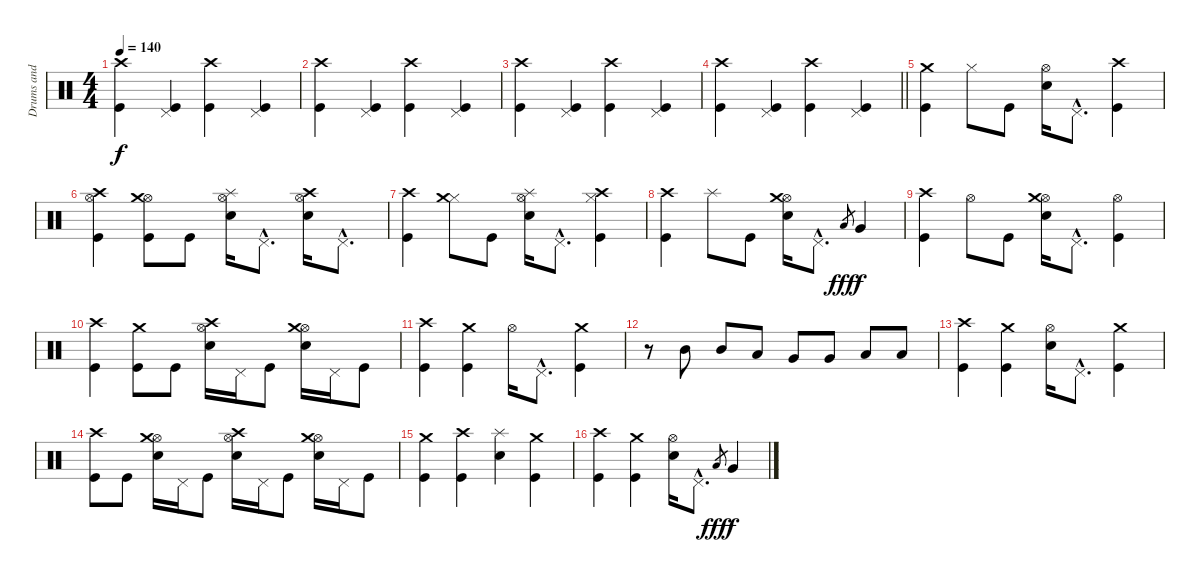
\track ("Drums and percussion" "Drums and ") {instrument percussion}
\staff {score}
\articulation defaults
\ts (4 4)
\tempo 140
\clef neutral
\ks c
("Crash high (hit)" "Kick (hit)").4{dy f} ("Pedal Hi-Hat (hit)" "Kick (hit)").4 ("Crash high (hit)" "Kick (hit)").4 ("Pedal Hi-Hat (hit)" "Kick (hit)").4 |
("Crash high (hit)" "Kick (hit)").4 ("Pedal Hi-Hat (hit)" "Kick (hit)").4 ("Crash high (hit)" "Kick (hit)").4 ("Pedal Hi-Hat (hit)" "Kick (hit)").4 |
("Crash high (hit)" "Kick (hit)").4 ("Pedal Hi-Hat (hit)" "Kick (hit)").4 ("Crash high (hit)" "Kick (hit)").4 ("Pedal Hi-Hat (hit)" "Kick (hit)").4 |
\barLineRight lightlight
("Crash high (hit)" "Kick (hit)").4 ("Pedal Hi-Hat (hit)" "Kick (hit)").4 ("Crash high (hit)" "Kick (hit)").4 ("Pedal Hi-Hat (hit)" "Kick (hit)").4 |
("Crash medium (hit)" "Kick (hit)").4 "Hi-Hat (closed)".8 "Kick (hit)".8 ("Hi-Hat (open)" "Electric Snare (hit)").16 "Pedal Hi-Hat (hit)"{hac}.8{d} ("Crash high (hit)" "Kick (hit)").4 |
("Hi-Hat (open)" "Crash high (hit)" "Kick (hit)").4 ("Hi-Hat (open)" "Crash medium (hit)" "Kick (hit)").8 "Kick (hit)".8 ("Hi-Hat (open)" "Splash (hit)" "Electric Snare (hit)").16 "Pedal Hi-Hat (hit)"{hac}.8{d} ("Hi-Hat (open)" "Crash high (hit)" "Electric Snare (hit)").16 "Pedal Hi-Hat (hit)"{hac}.8{d} |
("Crash high (hit)" "Kick (hit)").4 ("Hi-Hat (closed)" "Crash medium (hit)").8 "Kick (hit)".8 ("Hi-Hat (open)" "Splash (hit)" "Electric Snare (hit)").16 "Pedal Hi-Hat (hit)"{hac}.8{d} ("Hi-Hat (closed)" "Crash high (hit)" "Kick (hit)").4 |
("Crash high (hit)" "Kick (hit)").4 "Splash (hit)".8 "Kick (hit)".8 ("Hi-Hat (open)" "Crash medium (hit)" "Electric Snare (hit)").16 "Pedal Hi-Hat (hit)"{hac}.8{d} "Low Tom (hit)".8{gr dy fff} "Very Low Tom (hit)".4{dy f} |
("Crash high (hit)" "Kick (hit)").4 "Hi-Hat (open)".8 "Kick (hit)".8 ("Hi-Hat (open)" "Crash medium (hit)" "Electric Snare (hit)").16 "Pedal Hi-Hat (hit)"{hac}.8{d} ("Hi-Hat (open)" "Kick (hit)").4 |
("Crash high (hit)" "Kick (hit)").4 ("Crash medium (hit)" "Kick (hit)").8 "Kick (hit)".8 ("Hi-Hat (open)" "Crash high (hit)" "Electric Snare (hit)").16 "Pedal Hi-Hat (hit)".16 "Kick (hit)".8 ("Hi-Hat (open)" "Crash medium (hit)" "Electric Snare (hit)").16 "Pedal Hi-Hat (hit)".16 "Kick (hit)".8 |
("Crash high (hit)" "Kick (hit)").4 ("Crash medium (hit)" "Kick (hit)").4 "Hi-Hat (open)".16 "Pedal Hi-Hat (hit)"{hac}.8{d} ("Crash medium (hit)" "Kick (hit)").4 |
r.8 "Mid Tom (hit)".8 "Mid Tom (hit)".8 "Low Tom (hit)".8 "Very Low Tom (hit)".8 "Very Low Tom (hit)".8 "Low Floor Tom (hit)".8 "Low Floor Tom (hit)".8 |
("Crash high (hit)" "Kick (hit)").4 ("Crash medium (hit)" "Kick (hit)").4 ("Hi-Hat (open)" "Electric Snare (hit)").16 "Pedal Hi-Hat (hit)"{hac}.8{d} ("Crash medium (hit)" "Kick (hit)").4 |
("Crash high (hit)" "Kick (hit)").8 "Kick (hit)".8 ("Hi-Hat (open)" "Crash medium (hit)" "Electric Snare (hit)").16 "Pedal Hi-Hat (hit)".16 "Kick (hit)".8 ("Hi-Hat (open)" "Crash high (hit)" "Electric Snare (hit)").16 "Pedal Hi-Hat (hit)".16 "Kick (hit)".8 ("Hi-Hat (open)" "Crash medium (hit)" "Electric Snare (hit)").16 "Pedal Hi-Hat (hit)".16 "Kick (hit)".8 |
("Crash medium (hit)" "Kick (hit)").4 ("Crash high (hit)" "Kick (hit)").4 ("Splash (hit)" "Electric Snare (hit)").4 ("Crash medium (hit)" "Kick (hit)").4 |
("Crash high (hit)" "Kick (hit)").4 ("Crash medium (hit)" "Kick (hit)").4 ("Hi-Hat (open)" "Electric Snare (hit)").16 "Pedal Hi-Hat (hit)"{hac}.8{d} "Low Tom (hit)".8{gr dy fff} "Very Low Tom (hit)".4{dy f}
